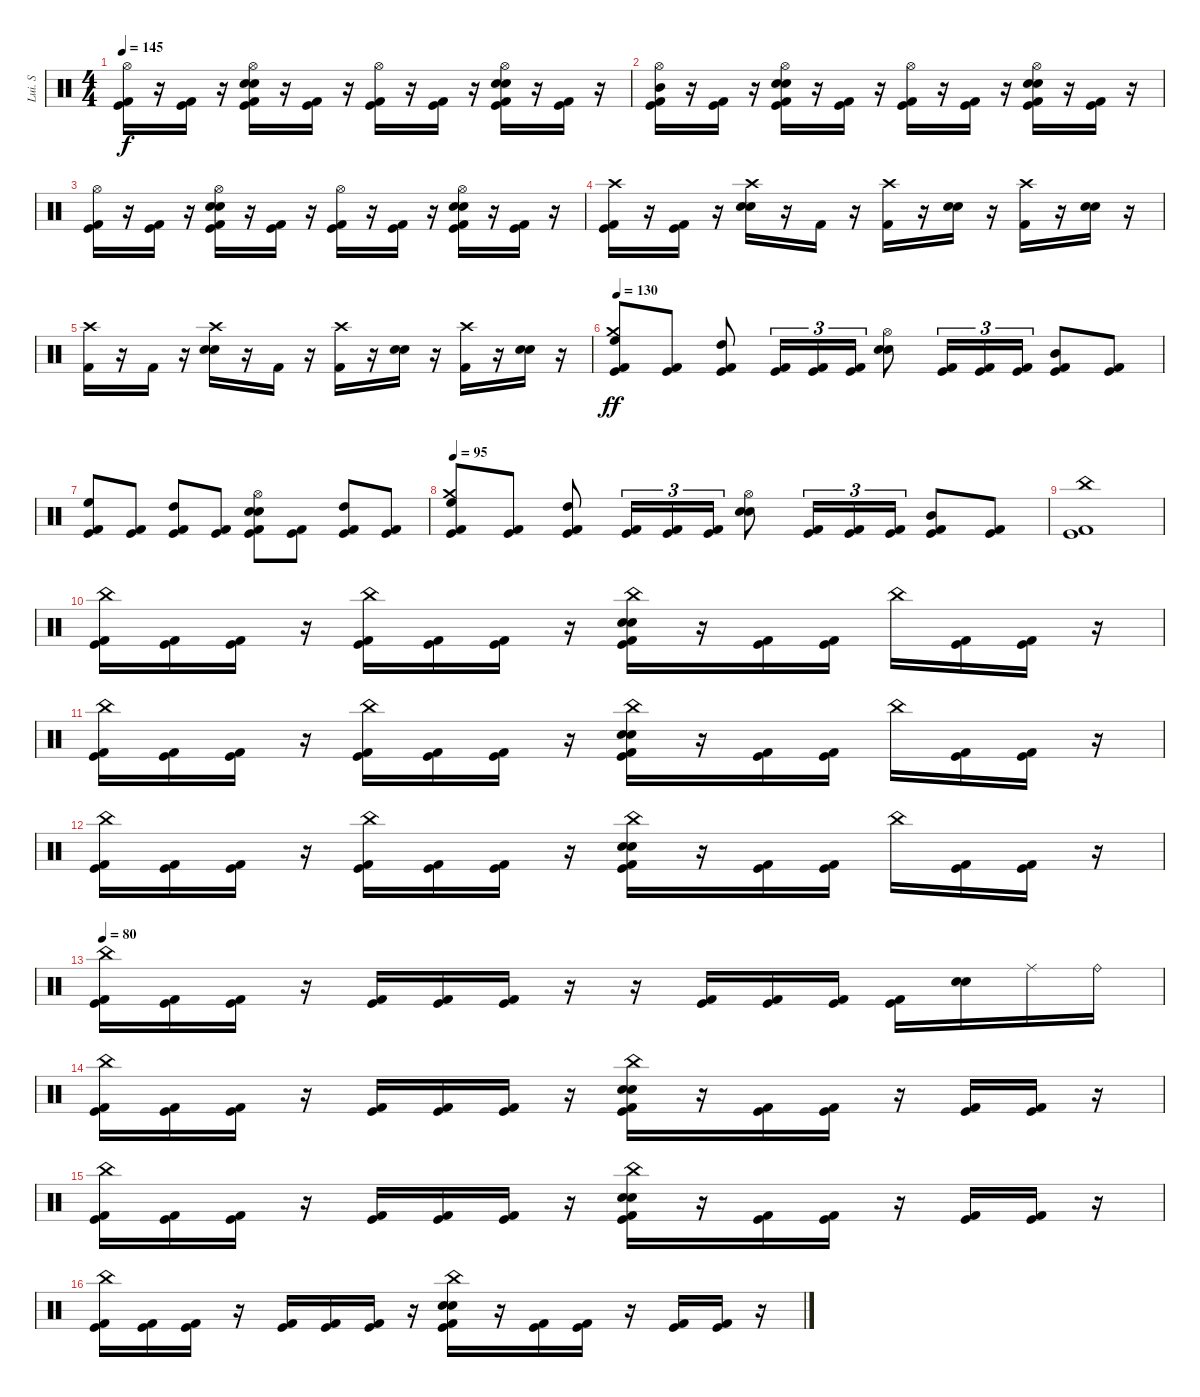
\track ("Lui. S" "Lui. S") {instrument percussion}
\staff {score}
\articulation defaults
\ts (4 4)
\tempo 145
\clef neutral
\ks c
("Hi-Hat (open)" "Kick (hit)" "Kick (hit) 2").16{dy f} r.16 ("Kick (hit)" "Kick (hit) 2").16 r.16 ("Hi-Hat (open)" "Electric Snare (hit)" "Snare (hit) 2" "Kick (hit)" "Kick (hit) 2").16 r.16 ("Kick (hit)" "Kick (hit) 2").16 r.16 ("Hi-Hat (open)" "Kick (hit)" "Kick (hit) 2").16 r.16 ("Kick (hit)" "Kick (hit) 2").16 r.16 ("Hi-Hat (open)" "Electric Snare (hit)" "Snare (hit) 2" "Kick (hit)" "Kick (hit) 2").16 r.16 ("Kick (hit)" "Kick (hit) 2").16 r.16 |
("Hi-Hat (open)" "Mid Tom (hit)" "Kick (hit)" "Kick (hit) 2").16 r.16 ("Kick (hit)" "Kick (hit) 2").16 r.16 ("Hi-Hat (open)" "Electric Snare (hit)" "Snare (hit) 2" "Kick (hit)" "Kick (hit) 2").16 r.16 ("Kick (hit)" "Kick (hit) 2").16 r.16 ("Hi-Hat (open)" "Kick (hit)" "Kick (hit) 2").16 r.16 ("Kick (hit)" "Kick (hit) 2").16 r.16 ("Hi-Hat (open)" "Electric Snare (hit)" "Snare (hit) 2" "Kick (hit)" "Kick (hit) 2").16 r.16 ("Kick (hit)" "Kick (hit) 2").16 r.16 |
("Hi-Hat (open)" "Kick (hit)" "Kick (hit) 2").16 r.16 ("Kick (hit)" "Kick (hit) 2").16 r.16 ("Hi-Hat (open)" "Electric Snare (hit)" "Snare (hit) 2" "Kick (hit)" "Kick (hit) 2").16 r.16 ("Kick (hit)" "Kick (hit) 2").16 r.16 ("Hi-Hat (open)" "Kick (hit)" "Kick (hit) 2").16 r.16 ("Kick (hit)" "Kick (hit) 2").16 r.16 ("Hi-Hat (open)" "Electric Snare (hit)" "Snare (hit) 2" "Kick (hit)" "Kick (hit) 2").16 r.16 ("Kick (hit)" "Kick (hit) 2").16 r.16 |
("Crash high (hit)" "Kick (hit)" "Kick (hit) 2").16 r.16 ("Kick (hit)" "Kick (hit) 2").16 r.16 ("Crash high (hit)" "Electric Snare (hit)" "Snare (hit) 2").16 r.16 "Kick (hit) 2".16 r.16 ("Crash high (hit)" "Kick (hit) 2").16 r.16 ("Electric Snare (hit)" "Snare (hit) 2").16 r.16 ("Crash high (hit)" "Kick (hit) 2").16 r.16 ("Electric Snare (hit)" "Snare (hit) 2").16 r.16 |
("Crash high (hit)" "Kick (hit) 2").16 r.16 "Kick (hit) 2".16 r.16 ("Crash high (hit)" "Electric Snare (hit)" "Snare (hit) 2").16 r.16 "Kick (hit) 2".16 r.16 ("Crash high (hit)" "Kick (hit) 2").16 r.16 ("Electric Snare (hit)" "Snare (hit) 2").16 r.16 ("Crash high (hit)" "Kick (hit) 2").16 r.16 ("Electric Snare (hit)" "Snare (hit) 2").16 r.16 |
\tempo 130
("Crash medium (hit)" "High Floor Tom (hit)" "Kick (hit)" "Kick (hit) 2").8{dy ff} ("Kick (hit)" "Kick (hit) 2").8 ("High Tom (hit)" "Kick (hit)" "Kick (hit) 2").8 ("Kick (hit)" "Kick (hit) 2").16{tu (3 2)} ("Kick (hit)" "Kick (hit) 2").16{tu (3 2)} ("Kick (hit)" "Kick (hit) 2").16{tu (3 2)} ("Hi-Hat (open)" "Snare (hit) 2" "Electric Snare (hit)").8 ("Kick (hit)" "Kick (hit) 2").16{tu (3 2)} ("Kick (hit)" "Kick (hit) 2").16{tu (3 2)} ("Kick (hit)" "Kick (hit) 2").16{tu (3 2)} ("Mid Tom (hit)" "Kick (hit)" "Kick (hit) 2").8 ("Kick (hit)" "Kick (hit) 2").8 |
("High Floor Tom (hit)" "Kick (hit)" "Kick (hit) 2").8 ("Kick (hit)" "Kick (hit) 2").8 ("High Tom (hit)" "Kick (hit)" "Kick (hit) 2").8 ("Kick (hit)" "Kick (hit) 2").8 ("Kick (hit)" "Hi-Hat (open)" "Snare (hit) 2" "Electric Snare (hit)" "Kick (hit) 2").8 ("Kick (hit)" "Kick (hit) 2").8 ("High Tom (hit)" "Kick (hit)" "Kick (hit) 2").8 ("Kick (hit)" "Kick (hit) 2").8 |
\tempo 95
("Crash medium (hit)" "High Floor Tom (hit)" "Kick (hit)" "Kick (hit) 2").8 ("Kick (hit)" "Kick (hit) 2").8 ("High Tom (hit)" "Kick (hit)" "Kick (hit) 2").8 ("Kick (hit)" "Kick (hit) 2").16{tu (3 2)} ("Kick (hit)" "Kick (hit) 2").16{tu (3 2)} ("Kick (hit)" "Kick (hit) 2").16{tu (3 2)} ("Hi-Hat (open)" "Snare (hit) 2" "Electric Snare (hit)").8 ("Kick (hit)" "Kick (hit) 2").16{tu (3 2)} ("Kick (hit)" "Kick (hit) 2").16{tu (3 2)} ("Kick (hit)" "Kick (hit) 2").16{tu (3 2)} ("Mid Tom (hit)" "Kick (hit)" "Kick (hit) 2").8 ("Kick (hit)" "Kick (hit) 2").8 |
("China (hit)" "Kick (hit)" "Kick (hit) 2").1 |
("China (hit)" "Kick (hit)" "Kick (hit) 2").16 ("Kick (hit)" "Kick (hit) 2").16 ("Kick (hit)" "Kick (hit) 2").16 r.16 ("China (hit)" "Kick (hit)" "Kick (hit) 2").16 ("Kick (hit)" "Kick (hit) 2").16 ("Kick (hit)" "Kick (hit) 2").16 r.16 ("China (hit)" "Snare (hit) 2" "Electric Snare (hit)" "Kick (hit)" "Kick (hit) 2").16 r.16 ("Kick (hit)" "Kick (hit) 2").16 ("Kick (hit)" "Kick (hit) 2").16 "China (hit)".16 ("Kick (hit)" "Kick (hit) 2").16 ("Kick (hit)" "Kick (hit) 2").16 r.16 |
("China (hit)" "Kick (hit)" "Kick (hit) 2").16 ("Kick (hit)" "Kick (hit) 2").16 ("Kick (hit)" "Kick (hit) 2").16 r.16 ("China (hit)" "Kick (hit)" "Kick (hit) 2").16 ("Kick (hit)" "Kick (hit) 2").16 ("Kick (hit)" "Kick (hit) 2").16 r.16 ("China (hit)" "Snare (hit) 2" "Electric Snare (hit)" "Kick (hit)" "Kick (hit) 2").16 r.16 ("Kick (hit)" "Kick (hit) 2").16 ("Kick (hit)" "Kick (hit) 2").16 "China (hit)".16 ("Kick (hit)" "Kick (hit) 2").16 ("Kick (hit)" "Kick (hit) 2").16 r.16 |
("China (hit)" "Kick (hit)" "Kick (hit) 2").16 ("Kick (hit)" "Kick (hit) 2").16 ("Kick (hit)" "Kick (hit) 2").16 r.16 ("China (hit)" "Kick (hit)" "Kick (hit) 2").16 ("Kick (hit)" "Kick (hit) 2").16 ("Kick (hit)" "Kick (hit) 2").16 r.16 ("China (hit)" "Snare (hit) 2" "Electric Snare (hit)" "Kick (hit)" "Kick (hit) 2").16 r.16 ("Kick (hit)" "Kick (hit) 2").16 ("Kick (hit)" "Kick (hit) 2").16 "China (hit)".16 ("Kick (hit)" "Kick (hit) 2").16 ("Kick (hit)" "Kick (hit) 2").16 r.16 |
\tempo 80
("China (hit)" "Kick (hit)" "Kick (hit) 2").16 ("Kick (hit)" "Kick (hit) 2").16 ("Kick (hit)" "Kick (hit) 2").16 r.16 ("Kick (hit)" "Kick (hit) 2").16 ("Kick (hit)" "Kick (hit) 2").16 ("Kick (hit)" "Kick (hit) 2").16 r.16 r.16 ("Kick (hit)" "Kick (hit) 2").16 ("Kick (hit)" "Kick (hit) 2").16 ("Kick (hit)" "Kick (hit) 2").16 ("Kick (hit)" "Kick (hit) 2").16 ("Electric Snare (hit)" "Snare (hit) 2").16 "Ride (middle)".16 "Ride (bell)".16 |
("China (hit)" "Kick (hit)" "Kick (hit) 2").16 ("Kick (hit)" "Kick (hit) 2").16 ("Kick (hit)" "Kick (hit) 2").16 r.16 ("Kick (hit)" "Kick (hit) 2").16 ("Kick (hit)" "Kick (hit) 2").16 ("Kick (hit)" "Kick (hit) 2").16 r.16 ("China (hit)" "Snare (hit) 2" "Electric Snare (hit)" "Kick (hit)" "Kick (hit) 2").16 r.16 ("Kick (hit)" "Kick (hit) 2").16 ("Kick (hit)" "Kick (hit) 2").16 r.16 ("Kick (hit)" "Kick (hit) 2").16 ("Kick (hit)" "Kick (hit) 2").16 r.16 |
("China (hit)" "Kick (hit)" "Kick (hit) 2").16 ("Kick (hit)" "Kick (hit) 2").16 ("Kick (hit)" "Kick (hit) 2").16 r.16 ("Kick (hit)" "Kick (hit) 2").16 ("Kick (hit)" "Kick (hit) 2").16 ("Kick (hit)" "Kick (hit) 2").16 r.16 ("China (hit)" "Snare (hit) 2" "Electric Snare (hit)" "Kick (hit)" "Kick (hit) 2").16 r.16 ("Kick (hit)" "Kick (hit) 2").16 ("Kick (hit)" "Kick (hit) 2").16 r.16 ("Kick (hit)" "Kick (hit) 2").16 ("Kick (hit)" "Kick (hit) 2").16 r.16 |
("China (hit)" "Kick (hit)" "Kick (hit) 2").16 ("Kick (hit)" "Kick (hit) 2").16 ("Kick (hit)" "Kick (hit) 2").16 r.16 ("Kick (hit)" "Kick (hit) 2").16 ("Kick (hit)" "Kick (hit) 2").16 ("Kick (hit)" "Kick (hit) 2").16 r.16 ("China (hit)" "Snare (hit) 2" "Electric Snare (hit)" "Kick (hit)" "Kick (hit) 2").16 r.16 ("Kick (hit)" "Kick (hit) 2").16 ("Kick (hit)" "Kick (hit) 2").16 r.16 ("Kick (hit)" "Kick (hit) 2").16 ("Kick (hit)" "Kick (hit) 2").16 r.16
